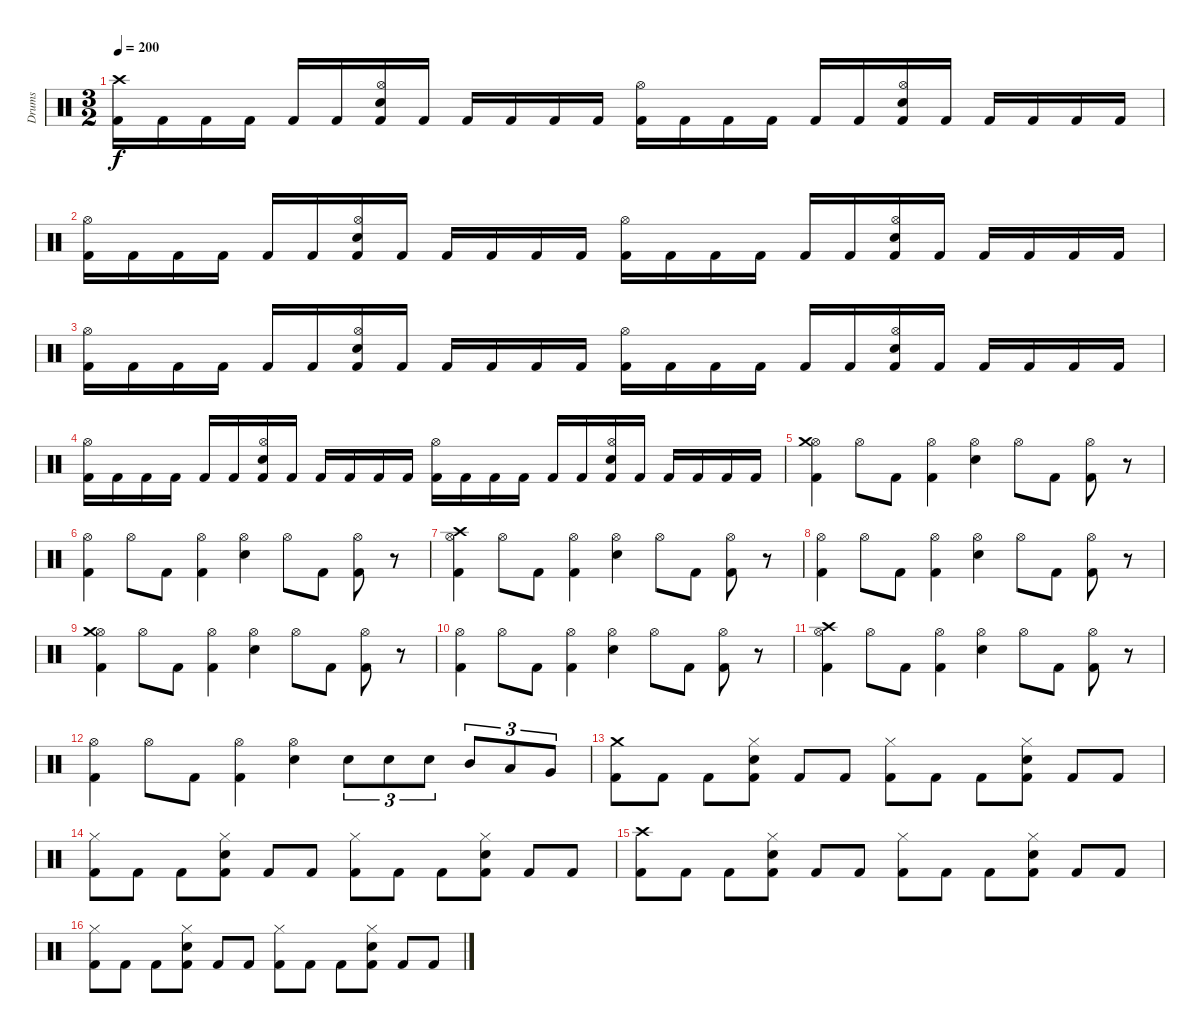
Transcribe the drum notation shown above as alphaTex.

\track ("Drums" "Drums") {instrument percussion}
\staff {score}
\articulation defaults
\ts (3 2)
\tempo 200
\clef neutral
\ks c
("Kick (hit) 2" "Crash high (hit)").16{dy f} "Kick (hit) 2".16 "Kick (hit) 2".16 "Kick (hit) 2".16 "Kick (hit) 2".16 "Kick (hit) 2".16 ("Kick (hit) 2" "Hi-Hat (open)" "Snare (hit) 2").16 "Kick (hit) 2".16 "Kick (hit) 2".16 "Kick (hit) 2".16 "Kick (hit) 2".16 "Kick (hit) 2".16 ("Kick (hit) 2" "Hi-Hat (open)").16 "Kick (hit) 2".16 "Kick (hit) 2".16 "Kick (hit) 2".16 "Kick (hit) 2".16 "Kick (hit) 2".16 ("Kick (hit) 2" "Hi-Hat (open)" "Snare (hit) 2").16 "Kick (hit) 2".16 "Kick (hit) 2".16 "Kick (hit) 2".16 "Kick (hit) 2".16 "Kick (hit) 2".16 |
("Kick (hit) 2" "Hi-Hat (open)").16 "Kick (hit) 2".16 "Kick (hit) 2".16 "Kick (hit) 2".16 "Kick (hit) 2".16 "Kick (hit) 2".16 ("Kick (hit) 2" "Hi-Hat (open)" "Snare (hit) 2").16 "Kick (hit) 2".16 "Kick (hit) 2".16 "Kick (hit) 2".16 "Kick (hit) 2".16 "Kick (hit) 2".16 ("Kick (hit) 2" "Hi-Hat (open)").16 "Kick (hit) 2".16 "Kick (hit) 2".16 "Kick (hit) 2".16 "Kick (hit) 2".16 "Kick (hit) 2".16 ("Kick (hit) 2" "Hi-Hat (open)" "Snare (hit) 2").16 "Kick (hit) 2".16 "Kick (hit) 2".16 "Kick (hit) 2".16 "Kick (hit) 2".16 "Kick (hit) 2".16 |
("Kick (hit) 2" "Hi-Hat (open)").16 "Kick (hit) 2".16 "Kick (hit) 2".16 "Kick (hit) 2".16 "Kick (hit) 2".16 "Kick (hit) 2".16 ("Kick (hit) 2" "Hi-Hat (open)" "Snare (hit) 2").16 "Kick (hit) 2".16 "Kick (hit) 2".16 "Kick (hit) 2".16 "Kick (hit) 2".16 "Kick (hit) 2".16 ("Kick (hit) 2" "Hi-Hat (open)").16 "Kick (hit) 2".16 "Kick (hit) 2".16 "Kick (hit) 2".16 "Kick (hit) 2".16 "Kick (hit) 2".16 ("Kick (hit) 2" "Hi-Hat (open)" "Snare (hit) 2").16 "Kick (hit) 2".16 "Kick (hit) 2".16 "Kick (hit) 2".16 "Kick (hit) 2".16 "Kick (hit) 2".16 |
("Kick (hit) 2" "Hi-Hat (open)").16 "Kick (hit) 2".16 "Kick (hit) 2".16 "Kick (hit) 2".16 "Kick (hit) 2".16 "Kick (hit) 2".16 ("Kick (hit) 2" "Hi-Hat (open)" "Snare (hit) 2").16 "Kick (hit) 2".16 "Kick (hit) 2".16 "Kick (hit) 2".16 "Kick (hit) 2".16 "Kick (hit) 2".16 ("Kick (hit) 2" "Hi-Hat (open)").16 "Kick (hit) 2".16 "Kick (hit) 2".16 "Kick (hit) 2".16 "Kick (hit) 2".16 "Kick (hit) 2".16 ("Kick (hit) 2" "Hi-Hat (open)" "Snare (hit) 2").16 "Kick (hit) 2".16 "Kick (hit) 2".16 "Kick (hit) 2".16 "Kick (hit) 2".16 "Kick (hit) 2".16 |
("Kick (hit) 2" "Hi-Hat (open)" "Crash medium (hit)").4 "Hi-Hat (open)".8 "Kick (hit) 2".8 ("Kick (hit) 2" "Hi-Hat (open)").4 ("Hi-Hat (open)" "Snare (hit) 2").4 "Hi-Hat (open)".8 "Kick (hit) 2".8 ("Kick (hit) 2" "Hi-Hat (open)").8 r.8 |
("Kick (hit) 2" "Hi-Hat (open)").4 "Hi-Hat (open)".8 "Kick (hit) 2".8 ("Kick (hit) 2" "Hi-Hat (open)").4 ("Hi-Hat (open)" "Snare (hit) 2").4 "Hi-Hat (open)".8 "Kick (hit) 2".8 ("Kick (hit) 2" "Hi-Hat (open)").8 r.8 |
("Kick (hit) 2" "Hi-Hat (open)" "Crash high (hit)").4 "Hi-Hat (open)".8 "Kick (hit) 2".8 ("Kick (hit) 2" "Hi-Hat (open)").4 ("Hi-Hat (open)" "Snare (hit) 2").4 "Hi-Hat (open)".8 "Kick (hit) 2".8 ("Kick (hit) 2" "Hi-Hat (open)").8 r.8 |
("Kick (hit) 2" "Hi-Hat (open)").4 "Hi-Hat (open)".8 "Kick (hit) 2".8 ("Kick (hit) 2" "Hi-Hat (open)").4 ("Hi-Hat (open)" "Snare (hit) 2").4 "Hi-Hat (open)".8 "Kick (hit) 2".8 ("Kick (hit) 2" "Hi-Hat (open)").8 r.8 |
("Kick (hit) 2" "Hi-Hat (open)" "Crash medium (hit)").4 "Hi-Hat (open)".8 "Kick (hit) 2".8 ("Kick (hit) 2" "Hi-Hat (open)").4 ("Hi-Hat (open)" "Snare (hit) 2").4 "Hi-Hat (open)".8 "Kick (hit) 2".8 ("Kick (hit) 2" "Hi-Hat (open)").8 r.8 |
("Kick (hit) 2" "Hi-Hat (open)").4 "Hi-Hat (open)".8 "Kick (hit) 2".8 ("Kick (hit) 2" "Hi-Hat (open)").4 ("Hi-Hat (open)" "Snare (hit) 2").4 "Hi-Hat (open)".8 "Kick (hit) 2".8 ("Kick (hit) 2" "Hi-Hat (open)").8 r.8 |
("Kick (hit) 2" "Hi-Hat (open)" "Crash high (hit)").4 "Hi-Hat (open)".8 "Kick (hit) 2".8 ("Kick (hit) 2" "Hi-Hat (open)").4 ("Hi-Hat (open)" "Snare (hit) 2").4 "Hi-Hat (open)".8 "Kick (hit) 2".8 ("Kick (hit) 2" "Hi-Hat (open)").8 r.8 |
("Kick (hit) 2" "Hi-Hat (open)").4 "Hi-Hat (open)".8 "Kick (hit) 2".8 ("Kick (hit) 2" "Hi-Hat (open)").4 ("Hi-Hat (open)" "Snare (hit) 2").4 "Snare (hit) 2".8{tu (3 2)} "Snare (hit) 2".8{tu (3 2)} "Snare (hit) 2".8{tu (3 2)} "Mid Tom (hit)".8{tu (3 2)} "Low Tom (hit)".8{tu (3 2)} "Very Low Tom (hit)".8{tu (3 2)} |
("Kick (hit) 2" "Crash medium (hit)").8 "Kick (hit) 2".8 "Kick (hit) 2".8 ("Kick (hit) 2" "Hi-Hat (closed)" "Snare (hit) 2").8 "Kick (hit) 2".8 "Kick (hit) 2".8 ("Kick (hit) 2" "Hi-Hat (closed)").8 "Kick (hit) 2".8 "Kick (hit) 2".8 ("Kick (hit) 2" "Hi-Hat (closed)" "Snare (hit) 2").8 "Kick (hit) 2".8 "Kick (hit) 2".8 |
("Kick (hit) 2" "Hi-Hat (closed)").8 "Kick (hit) 2".8 "Kick (hit) 2".8 ("Kick (hit) 2" "Hi-Hat (closed)" "Snare (hit) 2").8 "Kick (hit) 2".8 "Kick (hit) 2".8 ("Kick (hit) 2" "Hi-Hat (closed)").8 "Kick (hit) 2".8 "Kick (hit) 2".8 ("Kick (hit) 2" "Hi-Hat (closed)" "Snare (hit) 2").8 "Kick (hit) 2".8 "Kick (hit) 2".8 |
("Kick (hit) 2" "Crash high (hit)").8 "Kick (hit) 2".8 "Kick (hit) 2".8 ("Kick (hit) 2" "Hi-Hat (closed)" "Snare (hit) 2").8 "Kick (hit) 2".8 "Kick (hit) 2".8 ("Kick (hit) 2" "Hi-Hat (closed)").8 "Kick (hit) 2".8 "Kick (hit) 2".8 ("Kick (hit) 2" "Hi-Hat (closed)" "Snare (hit) 2").8 "Kick (hit) 2".8 "Kick (hit) 2".8 |
("Kick (hit) 2" "Hi-Hat (closed)").8 "Kick (hit) 2".8 "Kick (hit) 2".8 ("Kick (hit) 2" "Hi-Hat (closed)" "Snare (hit) 2").8 "Kick (hit) 2".8 "Kick (hit) 2".8 ("Kick (hit) 2" "Hi-Hat (closed)").8 "Kick (hit) 2".8 "Kick (hit) 2".8 ("Kick (hit) 2" "Hi-Hat (closed)" "Snare (hit) 2").8 "Kick (hit) 2".8 "Kick (hit) 2".8
